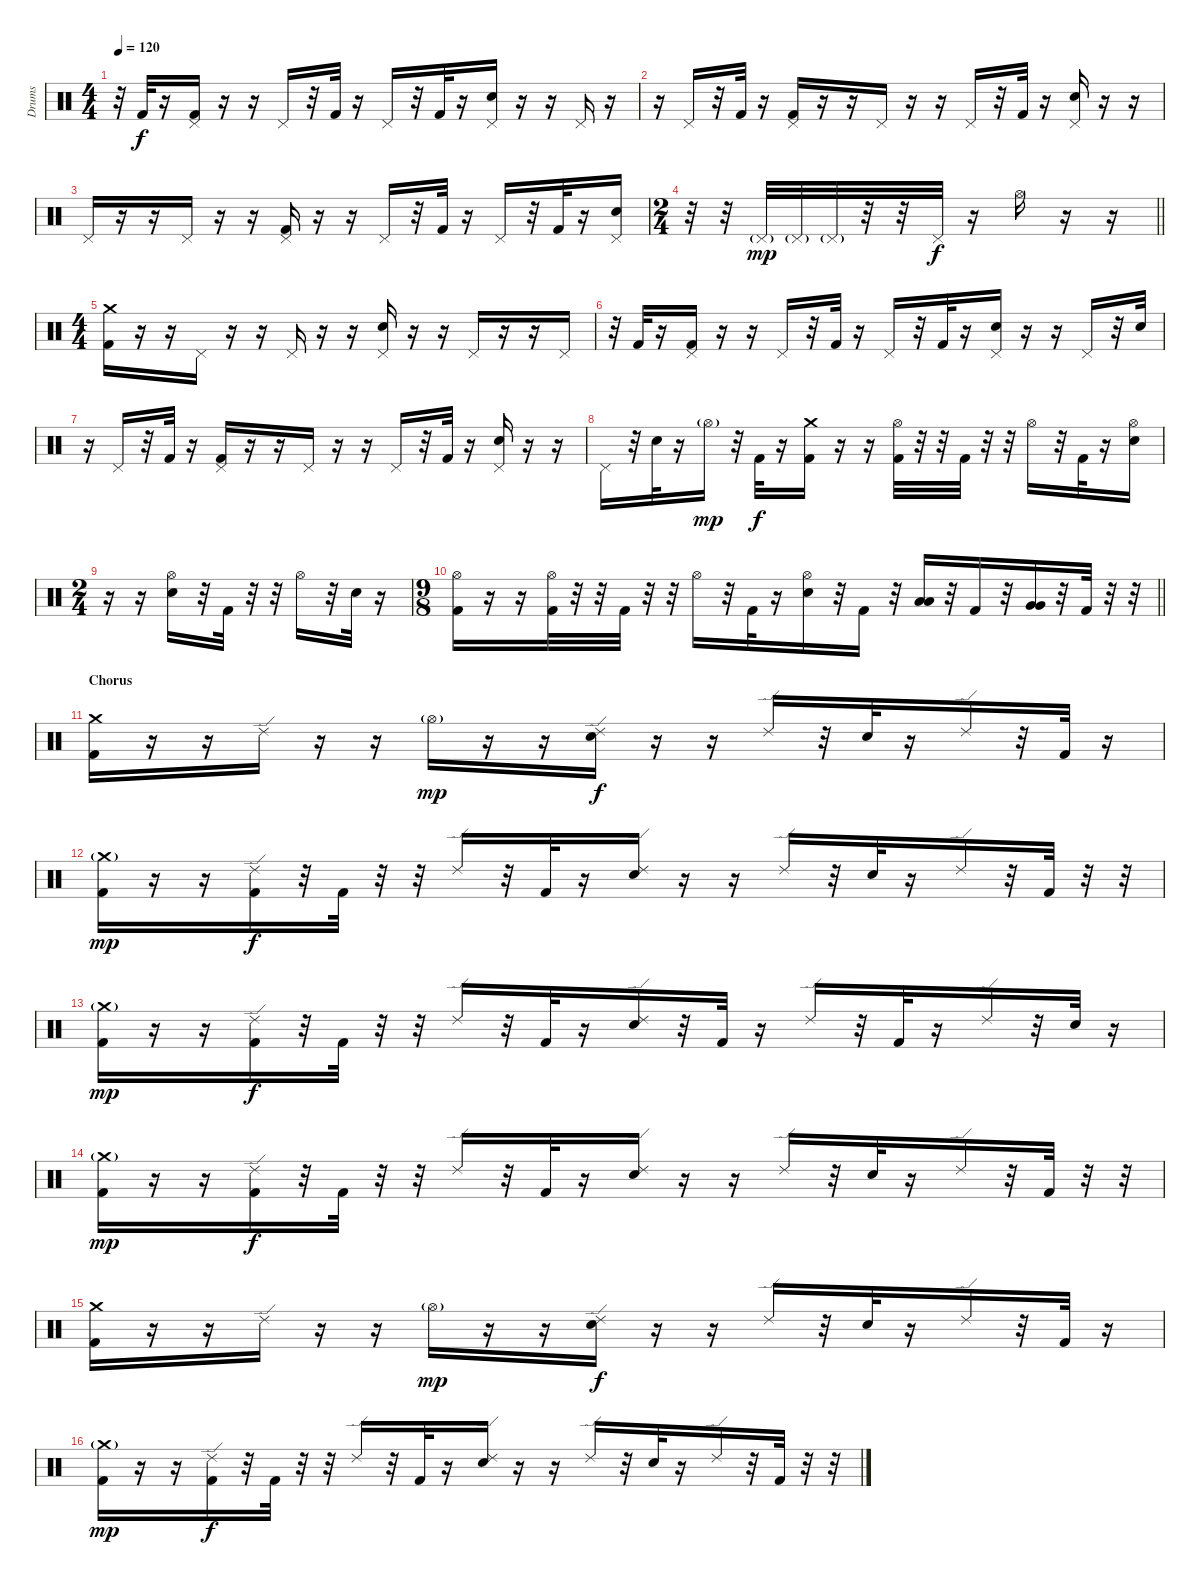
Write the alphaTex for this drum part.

\track ("Drums" "Drums") {instrument percussion}
\staff {score}
\articulation defaults
\ts (4 4)
\tempo 120
\clef neutral
\ks c
r.32{dy f} "Kick (hit) 2".32 r.16 ("Pedal Hi-Hat (hit)" "Kick (hit) 2").16 r.16 r.16 "Pedal Hi-Hat (hit)".16 r.32 "Kick (hit) 2".32 r.16 "Pedal Hi-Hat (hit)".16 r.32 "Kick (hit) 2".32 r.16 ("Pedal Hi-Hat (hit)" "Electric Snare (hit)").16 r.16 r.16 "Pedal Hi-Hat (hit)".16 r.16 |
r.16 "Pedal Hi-Hat (hit)".16 r.32 "Kick (hit) 2".32 r.16 ("Pedal Hi-Hat (hit)" "Kick (hit) 2").16 r.16 r.16 "Pedal Hi-Hat (hit)".16 r.16 r.16 "Pedal Hi-Hat (hit)".16 r.32 "Kick (hit) 2".32 r.16 ("Pedal Hi-Hat (hit)" "Electric Snare (hit)").16 r.16 r.16 |
"Pedal Hi-Hat (hit)".16 r.16 r.16 "Pedal Hi-Hat (hit)".16 r.16 r.16 ("Pedal Hi-Hat (hit)" "Kick (hit) 2").16 r.16 r.16 "Pedal Hi-Hat (hit)".16 r.32 "Kick (hit) 2".32 r.16 "Pedal Hi-Hat (hit)".16 r.32 "Kick (hit) 2".32 r.16 ("Pedal Hi-Hat (hit)" "Electric Snare (hit)").16 |
\ts (2 4)
\barLineRight lightlight
r.32 r.32 "Pedal Hi-Hat (hit)"{g}.32{dy mp} "Pedal Hi-Hat (hit)"{g}.32 "Pedal Hi-Hat (hit)"{g}.32 r.32 r.32 "Pedal Hi-Hat (hit)".32{dy f} r.16 "Hi-Hat (open)".16 r.16 r.16 |
\ts (4 4)
("Crash medium (hit)" "Kick (hit) 2").16 r.16 r.16 "Pedal Hi-Hat (hit)".16 r.16 r.16 "Pedal Hi-Hat (hit)".16 r.16 r.16 ("Pedal Hi-Hat (hit)" "Electric Snare (hit)").16 r.16 r.16 "Pedal Hi-Hat (hit)".16 r.16 r.16 "Pedal Hi-Hat (hit)".16 |
r.32 "Kick (hit) 2".32 r.16 ("Pedal Hi-Hat (hit)" "Kick (hit) 2").16 r.16 r.16 "Pedal Hi-Hat (hit)".16 r.32 "Kick (hit) 2".32 r.16 "Pedal Hi-Hat (hit)".16 r.32 "Kick (hit) 2".32 r.16 ("Pedal Hi-Hat (hit)" "Electric Snare (hit)").16 r.16 r.16 "Pedal Hi-Hat (hit)".16 r.32 "Electric Snare (hit)".32 |
r.16 "Pedal Hi-Hat (hit)".16 r.32 "Kick (hit) 2".32 r.16 ("Pedal Hi-Hat (hit)" "Kick (hit) 2").16 r.16 r.16 "Pedal Hi-Hat (hit)".16 r.16 r.16 "Pedal Hi-Hat (hit)".16 r.32 "Kick (hit) 2".32 r.16 ("Pedal Hi-Hat (hit)" "Electric Snare (hit)").16 r.16 r.16 |
"Pedal Hi-Hat (hit)".16 r.32 "Electric Snare (hit)".32 r.16 "Hi-Hat (open)"{g}.16{dy mp} r.32 "Kick (hit) 2".32{dy f} r.16 ("Crash medium (hit)" "Kick (hit) 2").16 r.16 r.16 ("Hi-Hat (open)" "Kick (hit) 2").32 r.32 r.32 "Kick (hit) 2".32 r.32 r.32 "Hi-Hat (open)".16 r.32 "Kick (hit) 2".32 r.16 ("Hi-Hat (open)" "Electric Snare (hit)").16 |
\ts (2 4)
r.16 r.16 ("Hi-Hat (open)" "Electric Snare (hit)").16 r.32 "Kick (hit) 2".32 r.32 r.32 "Hi-Hat (open)".16 r.32 "Electric Snare (hit)".32 r.16 |
\ts (9 8)
\barLineRight lightlight
("Hi-Hat (open)" "Kick (hit) 2").16 r.16 r.16 ("Hi-Hat (open)" "Kick (hit) 2").32 r.32 r.32 "Kick (hit) 2".32 r.32 r.32 "Hi-Hat (open)".16 r.32 "Kick (hit) 2".32 r.16 ("Hi-Hat (open)" "Electric Snare (hit)").16 r.32 "Kick (hit) 2".16 r.32 ("Low Tom (hit)" "Low Tom (hit)").16 r.32 "Kick (hit) 2".16 r.32 ("Very Low Tom (hit)" "Very Low Tom (hit)").16 r.32 "Kick (hit) 2".32 r.32 r.32 |
\section ("" "Chorus")
("Crash medium (hit)" "Kick (hit) 2").16 r.16 r.16 "Ride (edge) 2".16 r.16 r.16 "Hi-Hat (open)"{g}.16{dy mp} r.16 r.16 ("Ride (edge) 2" "Electric Snare (hit)").16{dy f} r.16 r.16 "Ride (edge) 2".16 r.32 "Electric Snare (hit)".32 r.16 "Ride (edge) 2".16 r.32 "Kick (hit) 2".32 r.16 |
("Crash medium (hit)"{g} "Kick (hit) 2").16{dy mp} r.16 r.16 ("Ride (edge) 2" "Kick (hit) 2").16{dy f} r.32 "Kick (hit) 2".32 r.32 r.32 "Ride (edge) 2".16 r.32 "Kick (hit) 2".32 r.16 ("Ride (edge) 2" "Electric Snare (hit)").16 r.16 r.16 "Ride (edge) 2".16 r.32 "Electric Snare (hit)".32 r.16 "Ride (edge) 2".16 r.32 "Kick (hit) 2".32 r.32 r.32 |
("Crash medium (hit)"{g} "Kick (hit) 2").16{dy mp} r.16 r.16 ("Ride (edge) 2" "Kick (hit) 2").16{dy f} r.32 "Kick (hit) 2".32 r.32 r.32 "Ride (edge) 2".16 r.32 "Kick (hit) 2".32 r.16 ("Ride (edge) 2" "Electric Snare (hit)").16 r.32 "Kick (hit) 2".32 r.16 "Ride (edge) 2".16 r.32 "Kick (hit) 2".32 r.16 "Ride (edge) 2".16 r.32 "Electric Snare (hit)".32 r.16 |
("Crash medium (hit)"{g} "Kick (hit) 2").16{dy mp} r.16 r.16 ("Ride (edge) 2" "Kick (hit) 2").16{dy f} r.32 "Kick (hit) 2".32 r.32 r.32 "Ride (edge) 2".16 r.32 "Kick (hit) 2".32 r.16 ("Ride (edge) 2" "Electric Snare (hit)").16 r.16 r.16 "Ride (edge) 2".16 r.32 "Electric Snare (hit)".32 r.16 "Ride (edge) 2".16 r.32 "Kick (hit) 2".32 r.32 r.32 |
("Crash medium (hit)" "Kick (hit) 2").16 r.16 r.16 "Ride (edge) 2".16 r.16 r.16 "Hi-Hat (open)"{g}.16{dy mp} r.16 r.16 ("Ride (edge) 2" "Electric Snare (hit)").16{dy f} r.16 r.16 "Ride (edge) 2".16 r.32 "Electric Snare (hit)".32 r.16 "Ride (edge) 2".16 r.32 "Kick (hit) 2".32 r.16 |
("Crash medium (hit)"{g} "Kick (hit) 2").16{dy mp} r.16 r.16 ("Ride (edge) 2" "Kick (hit) 2").16{dy f} r.32 "Kick (hit) 2".32 r.32 r.32 "Ride (edge) 2".16 r.32 "Kick (hit) 2".32 r.16 ("Ride (edge) 2" "Electric Snare (hit)").16 r.16 r.16 "Ride (edge) 2".16 r.32 "Electric Snare (hit)".32 r.16 "Ride (edge) 2".16 r.32 "Kick (hit) 2".32 r.32 r.32
